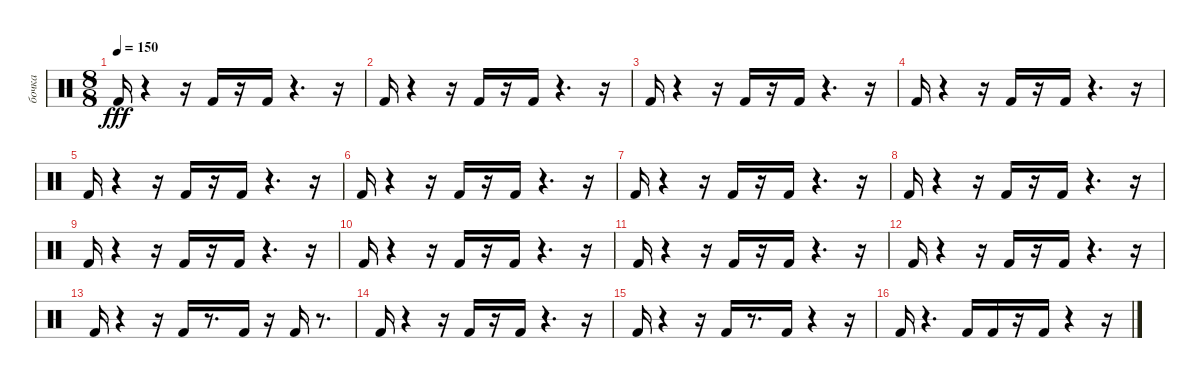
\track ("бочка" "бочка") {instrument percussion}
\staff {score}
\articulation defaults
\ts (8 8)
\tempo 150
\clef neutral
\ks c "Kick (hit) 2".16{dy fff}
r.4 r.16 "Kick (hit) 2".16 r.16 "Kick (hit) 2".16 r.4{d} r.16 |
"Kick (hit) 2".16 r.4 r.16 "Kick (hit) 2".16 r.16 "Kick (hit) 2".16 r.4{d} r.16 |
"Kick (hit) 2".16 r.4 r.16 "Kick (hit) 2".16 r.16 "Kick (hit) 2".16 r.4{d} r.16 |
"Kick (hit) 2".16 r.4 r.16 "Kick (hit) 2".16 r.16 "Kick (hit) 2".16 r.4{d} r.16 |
"Kick (hit) 2".16 r.4 r.16 "Kick (hit) 2".16 r.16 "Kick (hit) 2".16 r.4{d} r.16 |
"Kick (hit) 2".16 r.4 r.16 "Kick (hit) 2".16 r.16 "Kick (hit) 2".16 r.4{d} r.16 |
"Kick (hit) 2".16 r.4 r.16 "Kick (hit) 2".16 r.16 "Kick (hit) 2".16 r.4{d} r.16 |
"Kick (hit) 2".16 r.4 r.16 "Kick (hit) 2".16 r.16 "Kick (hit) 2".16 r.4{d} r.16 |
"Kick (hit) 2".16 r.4 r.16 "Kick (hit) 2".16 r.16 "Kick (hit) 2".16 r.4{d} r.16 |
"Kick (hit) 2".16 r.4 r.16 "Kick (hit) 2".16 r.16 "Kick (hit) 2".16 r.4{d} r.16 |
"Kick (hit) 2".16 r.4 r.16 "Kick (hit) 2".16 r.16 "Kick (hit) 2".16 r.4{d} r.16 |
"Kick (hit) 2".16 r.4 r.16 "Kick (hit) 2".16 r.16 "Kick (hit) 2".16 r.4{d} r.16 |
"Kick (hit) 2".16 r.4 r.16 "Kick (hit) 2".16 r.8{d} "Kick (hit) 2".16 r.16 "Kick (hit) 2".16 r.8{d} |
"Kick (hit) 2".16 r.4 r.16 "Kick (hit) 2".16 r.16 "Kick (hit) 2".16 r.4{d} r.16 |
"Kick (hit) 2".16 r.4 r.16 "Kick (hit) 2".16 r.8{d} "Kick (hit) 2".16 r.4 r.16 |
"Kick (hit) 2".16 r.4{d} "Kick (hit) 2".16 "Kick (hit) 2".16 r.16 "Kick (hit) 2".16 r.4 r.16
